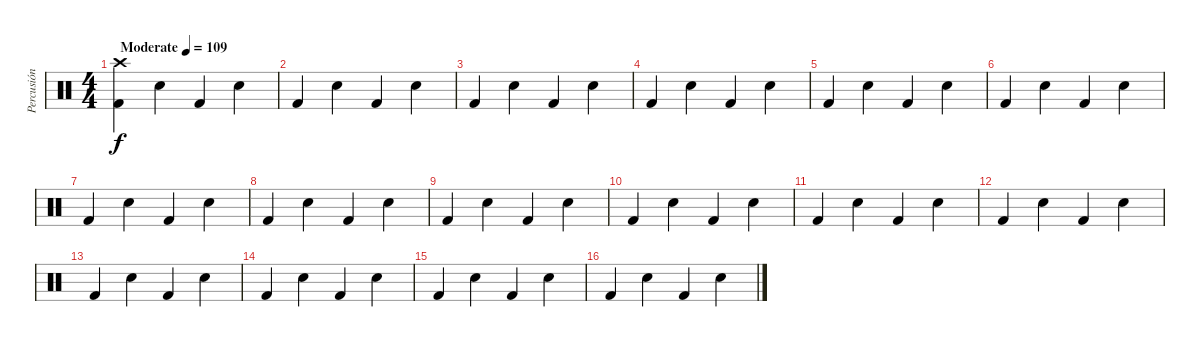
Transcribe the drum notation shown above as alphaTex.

\track ("Percusión" "Percusión") {instrument percussion}
\staff {score}
\articulation defaults
\ts (4 4)
\tempo (109 "Moderate")
\clef neutral
\ks c
("Crash high (hit)" "Kick (hit) 2").4{dy f} "Snare (hit) 2".4 "Kick (hit) 2".4 "Snare (hit) 2".4 |
"Kick (hit) 2".4 "Snare (hit) 2".4 "Kick (hit) 2".4 "Snare (hit) 2".4 |
"Kick (hit) 2".4 "Snare (hit) 2".4 "Kick (hit) 2".4 "Snare (hit) 2".4 |
"Kick (hit) 2".4 "Snare (hit) 2".4 "Kick (hit) 2".4 "Snare (hit) 2".4 |
"Kick (hit) 2".4 "Snare (hit) 2".4 "Kick (hit) 2".4 "Snare (hit) 2".4 |
"Kick (hit) 2".4 "Snare (hit) 2".4 "Kick (hit) 2".4 "Snare (hit) 2".4 |
"Kick (hit) 2".4 "Snare (hit) 2".4 "Kick (hit) 2".4 "Snare (hit) 2".4 |
"Kick (hit) 2".4 "Snare (hit) 2".4 "Kick (hit) 2".4 "Snare (hit) 2".4 |
"Kick (hit) 2".4 "Snare (hit) 2".4 "Kick (hit) 2".4 "Snare (hit) 2".4 |
"Kick (hit) 2".4 "Snare (hit) 2".4 "Kick (hit) 2".4 "Snare (hit) 2".4 |
"Kick (hit) 2".4 "Snare (hit) 2".4 "Kick (hit) 2".4 "Snare (hit) 2".4 |
"Kick (hit) 2".4 "Snare (hit) 2".4 "Kick (hit) 2".4 "Snare (hit) 2".4 |
"Kick (hit) 2".4 "Snare (hit) 2".4 "Kick (hit) 2".4 "Snare (hit) 2".4 |
"Kick (hit) 2".4 "Snare (hit) 2".4 "Kick (hit) 2".4 "Snare (hit) 2".4 |
"Kick (hit) 2".4 "Snare (hit) 2".4 "Kick (hit) 2".4 "Snare (hit) 2".4 |
"Kick (hit) 2".4 "Snare (hit) 2".4 "Kick (hit) 2".4 "Snare (hit) 2".4
